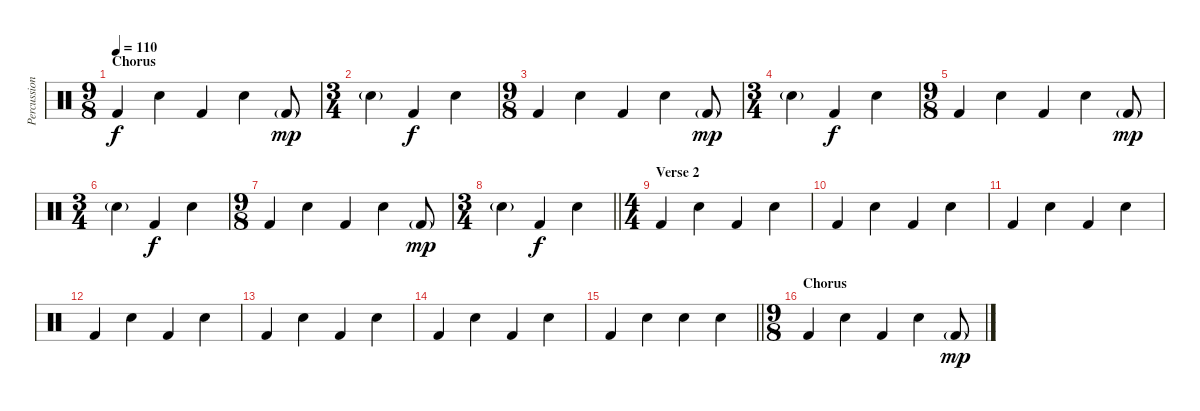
\track ("Percussion" "Percussion") {instrument percussion}
\staff {score}
\articulation defaults
\ts (9 8)
\section ("" "Chorus")
\tempo 110
\clef neutral
\ks c "Kick (hit) 2".4{dy f} "Snare (hit) 2".4 "Kick (hit) 2".4 "Snare (hit) 2".4 "Kick (hit) 2"{g}.8{dy mp}
|
\ts (3 4)
"Snare (hit) 2"{g}.4 "Kick (hit) 2".4{dy f} "Snare (hit) 2".4 |
\ts (9 8)
"Kick (hit) 2".4 "Snare (hit) 2".4 "Kick (hit) 2".4 "Snare (hit) 2".4 "Kick (hit) 2"{g}.8{dy mp} |
\ts (3 4)
"Snare (hit) 2"{g}.4 "Kick (hit) 2".4{dy f} "Snare (hit) 2".4 |
\ts (9 8)
"Kick (hit) 2".4 "Snare (hit) 2".4 "Kick (hit) 2".4 "Snare (hit) 2".4 "Kick (hit) 2"{g}.8{dy mp} |
\ts (3 4)
"Snare (hit) 2"{g}.4 "Kick (hit) 2".4{dy f} "Snare (hit) 2".4 |
\ts (9 8)
"Kick (hit) 2".4 "Snare (hit) 2".4 "Kick (hit) 2".4 "Snare (hit) 2".4 "Kick (hit) 2"{g}.8{dy mp} |
\ts (3 4)
\barLineRight lightlight "Snare (hit) 2"{g}.4 "Kick (hit) 2".4{dy f} "Snare (hit) 2".4
|
\ts (4 4)
\section ("" "Verse 2")
"Kick (hit) 2".4 "Snare (hit) 2".4 "Kick (hit) 2".4 "Snare (hit) 2".4 |
"Kick (hit) 2".4 "Snare (hit) 2".4 "Kick (hit) 2".4 "Snare (hit) 2".4 |
"Kick (hit) 2".4 "Snare (hit) 2".4 "Kick (hit) 2".4 "Snare (hit) 2".4 |
"Kick (hit) 2".4 "Snare (hit) 2".4 "Kick (hit) 2".4 "Snare (hit) 2".4 |
"Kick (hit) 2".4 "Snare (hit) 2".4 "Kick (hit) 2".4 "Snare (hit) 2".4 |
"Kick (hit) 2".4 "Snare (hit) 2".4 "Kick (hit) 2".4 "Snare (hit) 2".4 |
\barLineRight lightlight "Kick (hit) 2".4 "Snare (hit) 2".4 "Snare (hit) 2".4 "Snare (hit) 2".4
|
\ts (9 8)
\section ("" "Chorus")
"Kick (hit) 2".4 "Snare (hit) 2".4 "Kick (hit) 2".4 "Snare (hit) 2".4 "Kick (hit) 2"{g}.8{dy mp}
